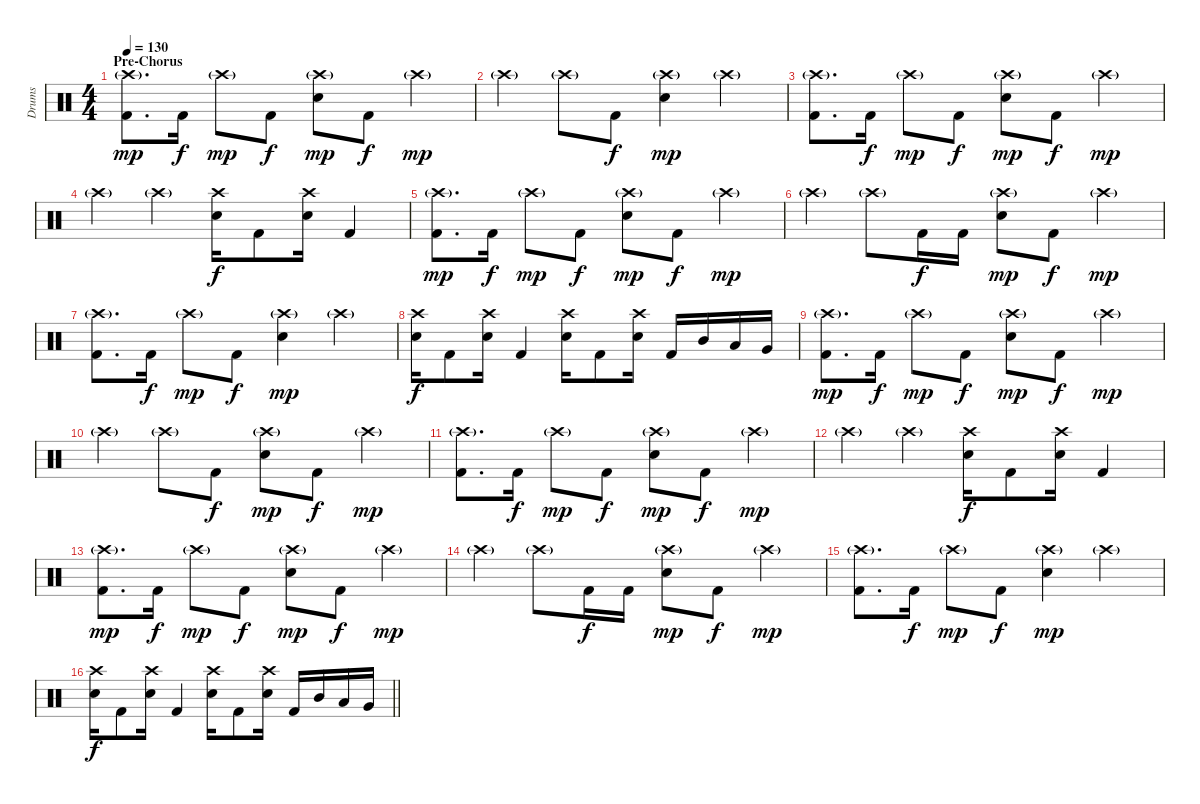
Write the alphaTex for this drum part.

\track ("Drums" "Drums") {instrument percussion}
\staff {score}
\articulation defaults
\ts (4 4)
\section ("" "Pre-Chorus")
\tempo 130
\clef neutral
\ks c
("Crash high (hit)"{g} "Kick (hit) 2").8{d dy mp} "Kick (hit) 2".16{dy f} "Crash high (hit)"{g}.8{dy mp} "Kick (hit) 2".8{dy f} ("Crash high (hit)"{g} "Electric Snare (hit)").8{dy mp} "Kick (hit) 2".8{dy f} "Crash high (hit)"{g}.4{dy mp} |
"Crash high (hit)"{g}.4 "Crash high (hit)"{g}.8 "Kick (hit) 2".8{dy f} ("Crash high (hit)"{g} "Electric Snare (hit)").4{dy mp} "Crash high (hit)"{g}.4 |
("Crash high (hit)"{g} "Kick (hit) 2").8{d} "Kick (hit) 2".16{dy f} "Crash high (hit)"{g}.8{dy mp} "Kick (hit) 2".8{dy f} ("Crash high (hit)"{g} "Electric Snare (hit)").8{dy mp} "Kick (hit) 2".8{dy f} "Crash high (hit)"{g}.4{dy mp} |
"Crash high (hit)"{g}.4 "Crash high (hit)"{g}.4 ("Crash high (hit)" "Electric Snare (hit)").16{dy f} "Kick (hit) 2".8 ("Crash high (hit)" "Electric Snare (hit)").16 "Kick (hit) 2".4 |
("Crash high (hit)"{g} "Kick (hit) 2").8{d dy mp} "Kick (hit) 2".16{dy f} "Crash high (hit)"{g}.8{dy mp} "Kick (hit) 2".8{dy f} ("Crash high (hit)"{g} "Electric Snare (hit)").8{dy mp} "Kick (hit) 2".8{dy f} "Crash high (hit)"{g}.4{dy mp} |
"Crash high (hit)"{g}.4 "Crash high (hit)"{g}.8 "Kick (hit) 2".16{dy f} "Kick (hit) 2".16 ("Crash high (hit)"{g} "Electric Snare (hit)").8{dy mp} "Kick (hit) 2".8{dy f} "Crash high (hit)"{g}.4{dy mp} |
("Crash high (hit)"{g} "Kick (hit) 2").8{d} "Kick (hit) 2".16{dy f} "Crash high (hit)"{g}.8{dy mp} "Kick (hit) 2".8{dy f} ("Crash high (hit)"{g} "Electric Snare (hit)").4{dy mp} "Crash high (hit)"{g}.4 |
("Crash high (hit)" "Electric Snare (hit)").16{dy f} "Kick (hit) 2".8 ("Crash high (hit)" "Electric Snare (hit)").16 "Kick (hit) 2".4 ("Crash high (hit)" "Electric Snare (hit)").16 "Kick (hit) 2".8 ("Crash high (hit)" "Electric Snare (hit)").16 "Kick (hit) 2".16 "Mid Tom (hit)".16 "Low Tom (hit)".16 "Very Low Tom (hit)".16 |
("Crash high (hit)"{g} "Kick (hit) 2").8{d dy mp} "Kick (hit) 2".16{dy f} "Crash high (hit)"{g}.8{dy mp} "Kick (hit) 2".8{dy f} ("Crash high (hit)"{g} "Electric Snare (hit)").8{dy mp} "Kick (hit) 2".8{dy f} "Crash high (hit)"{g}.4{dy mp} |
"Crash high (hit)"{g}.4 "Crash high (hit)"{g}.8 "Kick (hit) 2".8{dy f} ("Crash high (hit)"{g} "Electric Snare (hit)").8{dy mp} "Kick (hit) 2".8{dy f} "Crash high (hit)"{g}.4{dy mp} |
("Crash high (hit)"{g} "Kick (hit) 2").8{d} "Kick (hit) 2".16{dy f} "Crash high (hit)"{g}.8{dy mp} "Kick (hit) 2".8{dy f} ("Crash high (hit)"{g} "Electric Snare (hit)").8{dy mp} "Kick (hit) 2".8{dy f} "Crash high (hit)"{g}.4{dy mp} |
"Crash high (hit)"{g}.4 "Crash high (hit)"{g}.4 ("Crash high (hit)" "Electric Snare (hit)").16{dy f} "Kick (hit) 2".8 ("Crash high (hit)" "Electric Snare (hit)").16 "Kick (hit) 2".4 |
("Crash high (hit)"{g} "Kick (hit) 2").8{d dy mp} "Kick (hit) 2".16{dy f} "Crash high (hit)"{g}.8{dy mp} "Kick (hit) 2".8{dy f} ("Crash high (hit)"{g} "Electric Snare (hit)").8{dy mp} "Kick (hit) 2".8{dy f} "Crash high (hit)"{g}.4{dy mp} |
"Crash high (hit)"{g}.4 "Crash high (hit)"{g}.8 "Kick (hit) 2".16{dy f} "Kick (hit) 2".16 ("Crash high (hit)"{g} "Electric Snare (hit)").8{dy mp} "Kick (hit) 2".8{dy f} "Crash high (hit)"{g}.4{dy mp} |
("Crash high (hit)"{g} "Kick (hit) 2").8{d} "Kick (hit) 2".16{dy f} "Crash high (hit)"{g}.8{dy mp} "Kick (hit) 2".8{dy f} ("Crash high (hit)"{g} "Electric Snare (hit)").4{dy mp} "Crash high (hit)"{g}.4 |
\barLineRight lightlight
("Crash high (hit)" "Electric Snare (hit)").16{dy f} "Kick (hit) 2".8 ("Crash high (hit)" "Electric Snare (hit)").16 "Kick (hit) 2".4 ("Crash high (hit)" "Electric Snare (hit)").16 "Kick (hit) 2".8 ("Crash high (hit)" "Electric Snare (hit)").16 "Kick (hit) 2".16 "Mid Tom (hit)".16 "Low Tom (hit)".16 "Very Low Tom (hit)".16
